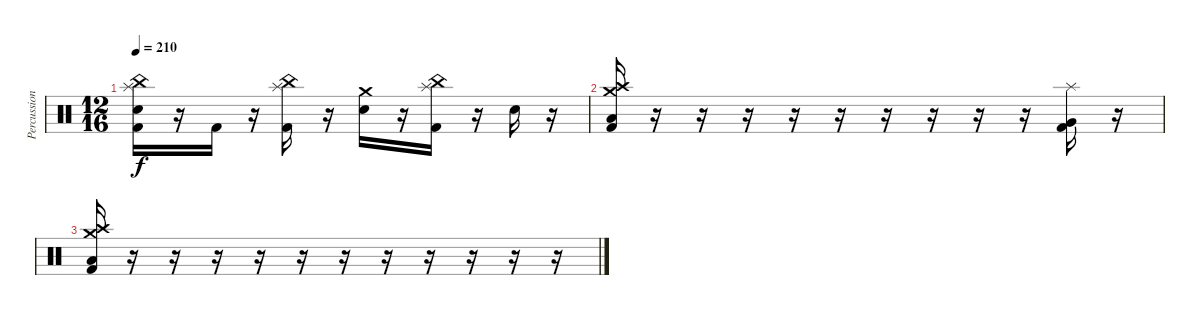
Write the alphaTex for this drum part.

\track ("Percussion" "Percussion") {instrument percussion}
\staff {score}
\articulation defaults
\ts (12 16)
\tempo 210
\clef neutral
\ks c
("China (hit)" "Splash (hit)" "Electric Snare (hit)" "Kick (hit) 2").16{dy f} r.16 "Kick (hit) 2".16 r.16 ("Splash (hit)" "China (hit)" "Kick (hit) 2").16 r.16 ("Crash medium (hit)" "Electric Snare (hit)").16 r.16 ("Splash (hit)" "China (hit)" "Kick (hit) 2").16 r.16 "Electric Snare (hit)".16 r.16 |
("Crash medium (hit)" "Crash high (hit)" "Low Floor Tom (hit)" "Kick (hit) 2").16 r.16 r.16 r.16 r.16 r.16 r.16 r.16 r.16 r.16 ("Splash (hit)" "Very Low Tom (hit)" "Kick (hit) 2").16 r.16 |
("Crash medium (hit)" "Crash high (hit)" "Low Floor Tom (hit)" "Kick (hit) 2").16 r.16 r.16 r.16 r.16 r.16 r.16 r.16 r.16 r.16 r.16 r.16
